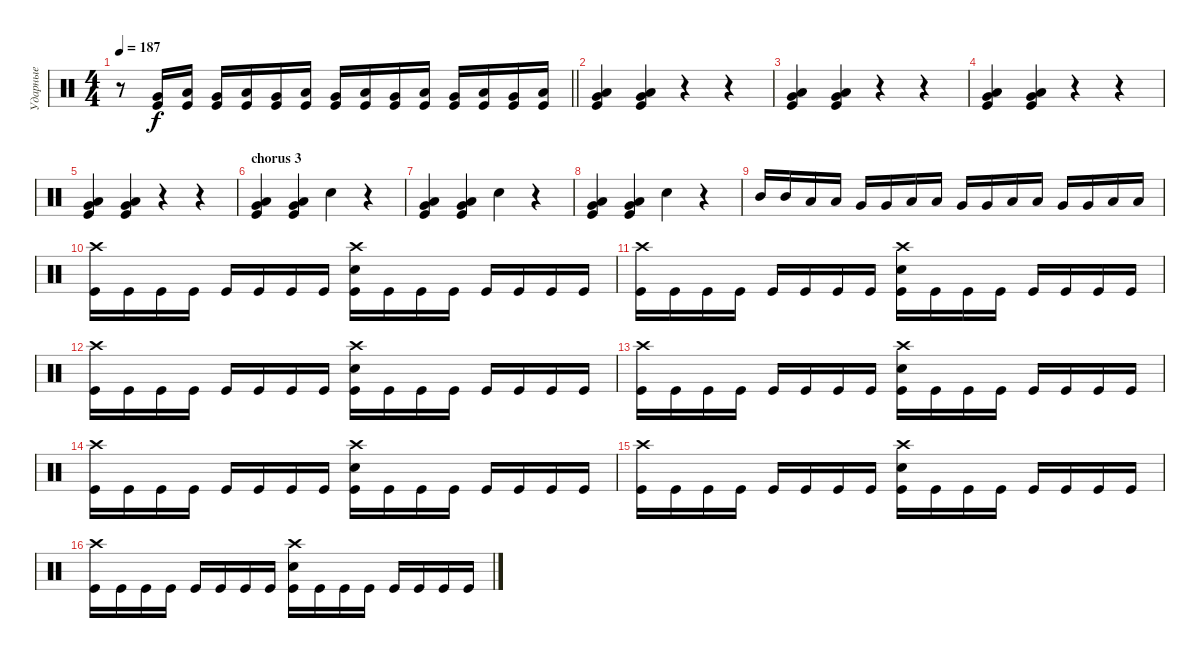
\track ("Ударные" "Ударные") {instrument percussion}
\staff {score}
\articulation defaults
\ts (4 4)
\tempo 187
\clef neutral
\barLineRight lightlight
\ks c
r.8{dy f} ("Very Low Tom (hit)" "Kick (hit)").16 ("Low Floor Tom (hit)" "Kick (hit)").16 ("Very Low Tom (hit)" "Kick (hit)").16 ("Low Floor Tom (hit)" "Kick (hit)").16 ("Very Low Tom (hit)" "Kick (hit)").16 ("Low Floor Tom (hit)" "Kick (hit)").16 ("Very Low Tom (hit)" "Kick (hit)").16 ("Low Floor Tom (hit)" "Kick (hit)").16 ("Very Low Tom (hit)" "Kick (hit)").16 ("Low Floor Tom (hit)" "Kick (hit)").16 ("Very Low Tom (hit)" "Kick (hit)").16 ("Low Floor Tom (hit)" "Kick (hit)").16 ("Very Low Tom (hit)" "Kick (hit)").16 ("Low Floor Tom (hit)" "Kick (hit)").16 |
("Low Floor Tom (hit)" "Very Low Tom (hit)" "Kick (hit)").4 ("Low Floor Tom (hit)" "Very Low Tom (hit)" "Kick (hit)").4 r.4 r.4 |
("Low Floor Tom (hit)" "Very Low Tom (hit)" "Kick (hit)").4 ("Low Floor Tom (hit)" "Very Low Tom (hit)" "Kick (hit)").4 r.4 r.4 |
("Low Floor Tom (hit)" "Very Low Tom (hit)" "Kick (hit)").4 ("Low Floor Tom (hit)" "Very Low Tom (hit)" "Kick (hit)").4 r.4 r.4 |
("Low Floor Tom (hit)" "Very Low Tom (hit)" "Kick (hit)").4 ("Low Floor Tom (hit)" "Very Low Tom (hit)" "Kick (hit)").4 r.4 r.4 |
\section ("" "chorus 3")
("Low Floor Tom (hit)" "Very Low Tom (hit)" "Kick (hit)").4 ("Low Floor Tom (hit)" "Very Low Tom (hit)" "Kick (hit)").4 "Electric Snare (hit)".4 r.4 |
("Low Floor Tom (hit)" "Very Low Tom (hit)" "Kick (hit)").4 ("Low Floor Tom (hit)" "Very Low Tom (hit)" "Kick (hit)").4 "Electric Snare (hit)".4 r.4 |
("Low Floor Tom (hit)" "Very Low Tom (hit)" "Kick (hit)").4 ("Low Floor Tom (hit)" "Very Low Tom (hit)" "Kick (hit)").4 "Electric Snare (hit)".4 r.4 |
"Mid Tom (hit)".16 "Mid Tom (hit)".16 "Low Tom (hit)".16 "Low Tom (hit)".16 "Very Low Tom (hit)".16 "Very Low Tom (hit)".16 "Low Tom (hit)".16 "Low Tom (hit)".16 "Very Low Tom (hit)".16 "Very Low Tom (hit)".16 "Low Floor Tom (hit)".16 "Low Floor Tom (hit)".16 "Very Low Tom (hit)".16 "Very Low Tom (hit)".16 "Low Floor Tom (hit)".16 "Low Floor Tom (hit)".16 |
("Crash high (hit)" "Kick (hit)").16 "Kick (hit)".16 "Kick (hit)".16 "Kick (hit)".16 "Kick (hit)".16 "Kick (hit)".16 "Kick (hit)".16 "Kick (hit)".16 ("Electric Snare (hit)" "Crash high (hit)" "Kick (hit)").16 "Kick (hit)".16 "Kick (hit)".16 "Kick (hit)".16 "Kick (hit)".16 "Kick (hit)".16 "Kick (hit)".16 "Kick (hit)".16 |
("Crash high (hit)" "Kick (hit)").16 "Kick (hit)".16 "Kick (hit)".16 "Kick (hit)".16 "Kick (hit)".16 "Kick (hit)".16 "Kick (hit)".16 "Kick (hit)".16 ("Electric Snare (hit)" "Crash high (hit)" "Kick (hit)").16 "Kick (hit)".16 "Kick (hit)".16 "Kick (hit)".16 "Kick (hit)".16 "Kick (hit)".16 "Kick (hit)".16 "Kick (hit)".16 |
("Crash high (hit)" "Kick (hit)").16 "Kick (hit)".16 "Kick (hit)".16 "Kick (hit)".16 "Kick (hit)".16 "Kick (hit)".16 "Kick (hit)".16 "Kick (hit)".16 ("Electric Snare (hit)" "Crash high (hit)" "Kick (hit)").16 "Kick (hit)".16 "Kick (hit)".16 "Kick (hit)".16 "Kick (hit)".16 "Kick (hit)".16 "Kick (hit)".16 "Kick (hit)".16 |
("Crash high (hit)" "Kick (hit)").16 "Kick (hit)".16 "Kick (hit)".16 "Kick (hit)".16 "Kick (hit)".16 "Kick (hit)".16 "Kick (hit)".16 "Kick (hit)".16 ("Electric Snare (hit)" "Crash high (hit)" "Kick (hit)").16 "Kick (hit)".16 "Kick (hit)".16 "Kick (hit)".16 "Kick (hit)".16 "Kick (hit)".16 "Kick (hit)".16 "Kick (hit)".16 |
("Crash high (hit)" "Kick (hit)").16 "Kick (hit)".16 "Kick (hit)".16 "Kick (hit)".16 "Kick (hit)".16 "Kick (hit)".16 "Kick (hit)".16 "Kick (hit)".16 ("Electric Snare (hit)" "Crash high (hit)" "Kick (hit)").16 "Kick (hit)".16 "Kick (hit)".16 "Kick (hit)".16 "Kick (hit)".16 "Kick (hit)".16 "Kick (hit)".16 "Kick (hit)".16 |
("Crash high (hit)" "Kick (hit)").16 "Kick (hit)".16 "Kick (hit)".16 "Kick (hit)".16 "Kick (hit)".16 "Kick (hit)".16 "Kick (hit)".16 "Kick (hit)".16 ("Electric Snare (hit)" "Crash high (hit)" "Kick (hit)").16 "Kick (hit)".16 "Kick (hit)".16 "Kick (hit)".16 "Kick (hit)".16 "Kick (hit)".16 "Kick (hit)".16 "Kick (hit)".16 |
("Crash high (hit)" "Kick (hit)").16 "Kick (hit)".16 "Kick (hit)".16 "Kick (hit)".16 "Kick (hit)".16 "Kick (hit)".16 "Kick (hit)".16 "Kick (hit)".16 ("Electric Snare (hit)" "Crash high (hit)" "Kick (hit)").16 "Kick (hit)".16 "Kick (hit)".16 "Kick (hit)".16 "Kick (hit)".16 "Kick (hit)".16 "Kick (hit)".16 "Kick (hit)".16
